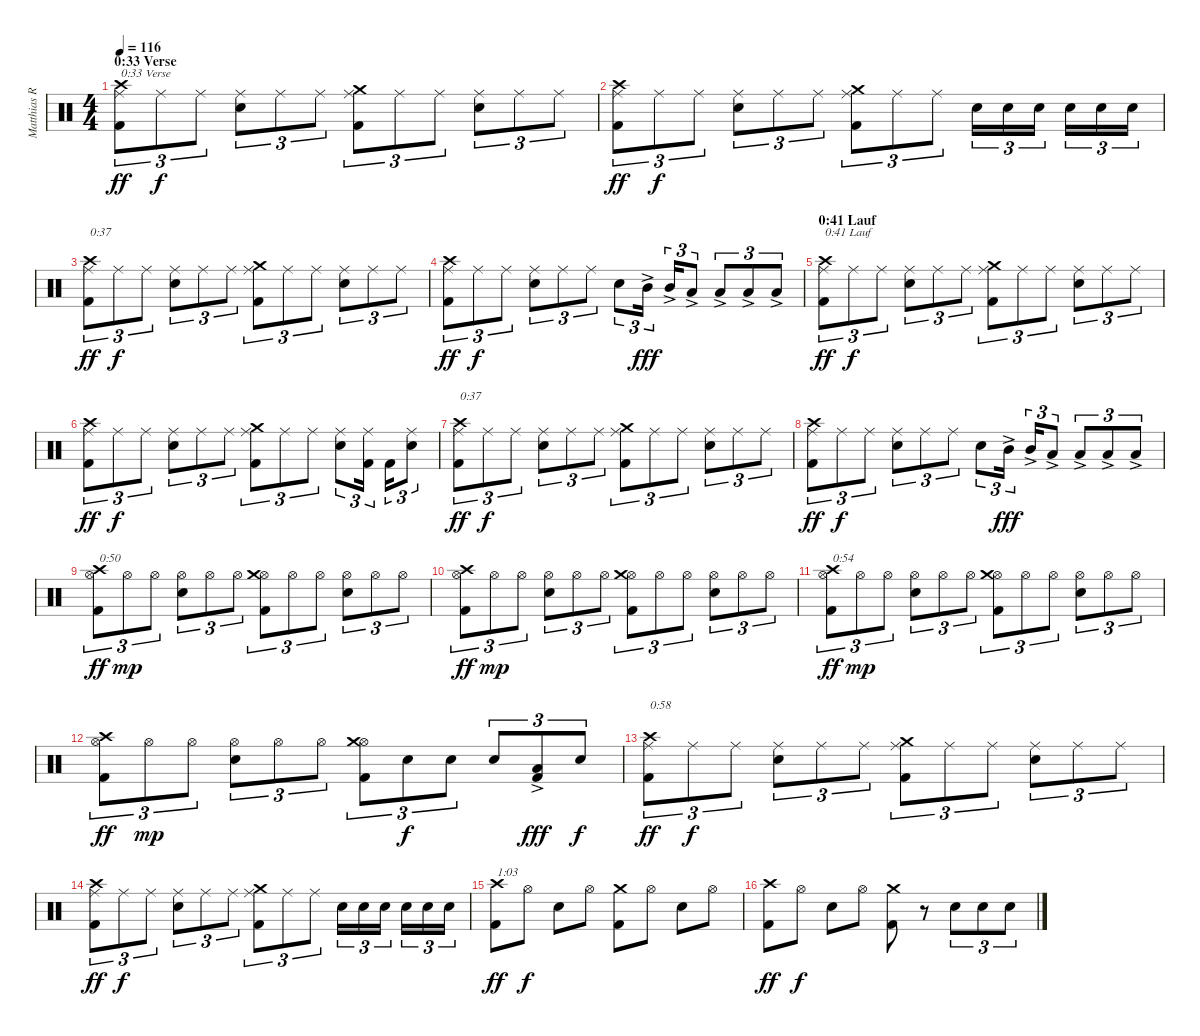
\track ("Matthias R." "Matthias R") {instrument percussion}
\staff {score}
\articulation defaults
\ts (4 4)
\section ("" "0:33 Verse")
\tempo 116
\clef neutral
\ks c
("Kick (hit) 2" "Ride (middle)" "Crash high (hit)").8{tu (3 2) txt "0:33 Verse" dy ff} "Ride (middle)".8{tu (3 2) dy f} "Ride (middle)".8{tu (3 2)} ("Electric Snare (hit)" "Ride (middle)").8{tu (3 2)} "Ride (middle)".8{tu (3 2)} "Ride (middle)".8{tu (3 2)} ("Kick (hit) 2" "Ride (middle)" "Crash medium (hit)").8{tu (3 2)} "Ride (middle)".8{tu (3 2)} "Ride (middle)".8{tu (3 2)} ("Electric Snare (hit)" "Ride (middle)").8{tu (3 2)} "Ride (middle)".8{tu (3 2)} "Ride (middle)".8{tu (3 2)} |
("Kick (hit) 2" "Ride (middle)" "Crash high (hit)").8{tu (3 2) dy ff} "Ride (middle)".8{tu (3 2) dy f} "Ride (middle)".8{tu (3 2)} ("Electric Snare (hit)" "Ride (middle)").8{tu (3 2)} "Ride (middle)".8{tu (3 2)} "Ride (middle)".8{tu (3 2)} ("Kick (hit) 2" "Ride (middle)" "Crash medium (hit)").8{tu (3 2)} "Ride (middle)".8{tu (3 2)} "Ride (middle)".8{tu (3 2)} "Electric Snare (hit)".16{tu (3 2)} "Electric Snare (hit)".16{tu (3 2)} "Electric Snare (hit)".16{tu (3 2)} "Electric Snare (hit)".16{tu (3 2)} "Electric Snare (hit)".16{tu (3 2)} "Electric Snare (hit)".16{tu (3 2)} |
("Kick (hit) 2" "Ride (middle)" "Crash high (hit)").8{tu (3 2) txt "0:37" dy ff} "Ride (middle)".8{tu (3 2) dy f} "Ride (middle)".8{tu (3 2)} ("Electric Snare (hit)" "Ride (middle)").8{tu (3 2)} "Ride (middle)".8{tu (3 2)} "Ride (middle)".8{tu (3 2)} ("Kick (hit) 2" "Ride (middle)" "Crash medium (hit)").8{tu (3 2)} "Ride (middle)".8{tu (3 2)} "Ride (middle)".8{tu (3 2)} ("Electric Snare (hit)" "Ride (middle)").8{tu (3 2)} "Ride (middle)".8{tu (3 2)} "Ride (middle)".8{tu (3 2)} |
("Kick (hit) 2" "Ride (middle)" "Crash high (hit)").8{tu (3 2) dy ff} "Ride (middle)".8{tu (3 2) dy f} "Ride (middle)".8{tu (3 2)} ("Electric Snare (hit)" "Ride (middle)").8{tu (3 2)} "Ride (middle)".8{tu (3 2)} "Ride (middle)".8{tu (3 2)} "Electric Snare (hit)".8{tu (3 2)} "Mid Tom (hit)"{ac}.16{tu (3 2) dy fff} "Mid Tom (hit)"{ac}.16{tu (3 2)} "Low Tom (hit)"{ac}.8{tu (3 2)} "Low Tom (hit)"{ac}.8{tu (3 2)} "Low Tom (hit)"{ac}.8{tu (3 2)} "Low Tom (hit)"{ac}.8{tu (3 2)} |
\section ("" "0:41 Lauf")
("Kick (hit) 2" "Ride (middle)" "Crash high (hit)").8{tu (3 2) txt "0:41 Lauf" dy ff} "Ride (middle)".8{tu (3 2) dy f} "Ride (middle)".8{tu (3 2)} ("Electric Snare (hit)" "Ride (middle)").8{tu (3 2)} "Ride (middle)".8{tu (3 2)} "Ride (middle)".8{tu (3 2)} ("Kick (hit) 2" "Ride (middle)" "Crash medium (hit)").8{tu (3 2)} "Ride (middle)".8{tu (3 2)} "Ride (middle)".8{tu (3 2)} ("Electric Snare (hit)" "Ride (middle)").8{tu (3 2)} "Ride (middle)".8{tu (3 2)} "Ride (middle)".8{tu (3 2)} |
("Kick (hit) 2" "Ride (middle)" "Crash high (hit)").8{tu (3 2) dy ff} "Ride (middle)".8{tu (3 2) dy f} "Ride (middle)".8{tu (3 2)} ("Electric Snare (hit)" "Ride (middle)").8{tu (3 2)} "Ride (middle)".8{tu (3 2)} "Ride (middle)".8{tu (3 2)} ("Kick (hit) 2" "Ride (middle)" "Crash medium (hit)").8{tu (3 2)} "Ride (middle)".8{tu (3 2)} "Ride (middle)".8{tu (3 2)} ("Electric Snare (hit)" "Ride (middle)").8{tu (3 2)} ("Kick (hit) 2" "Ride (middle)").16{tu (3 2)} "Kick (hit) 2".16{tu (3 2)} ("Electric Snare (hit)" "Ride (middle)").8{tu (3 2)} |
("Kick (hit) 2" "Ride (middle)" "Crash high (hit)").8{tu (3 2) txt "0:37" dy ff} "Ride (middle)".8{tu (3 2) dy f} "Ride (middle)".8{tu (3 2)} ("Electric Snare (hit)" "Ride (middle)").8{tu (3 2)} "Ride (middle)".8{tu (3 2)} "Ride (middle)".8{tu (3 2)} ("Kick (hit) 2" "Ride (middle)" "Crash medium (hit)").8{tu (3 2)} "Ride (middle)".8{tu (3 2)} "Ride (middle)".8{tu (3 2)} ("Electric Snare (hit)" "Ride (middle)").8{tu (3 2)} "Ride (middle)".8{tu (3 2)} "Ride (middle)".8{tu (3 2)} |
("Kick (hit) 2" "Ride (middle)" "Crash high (hit)").8{tu (3 2) dy ff} "Ride (middle)".8{tu (3 2) dy f} "Ride (middle)".8{tu (3 2)} ("Electric Snare (hit)" "Ride (middle)").8{tu (3 2)} "Ride (middle)".8{tu (3 2)} "Ride (middle)".8{tu (3 2)} "Electric Snare (hit)".8{tu (3 2)} "Mid Tom (hit)"{ac}.16{tu (3 2) dy fff} "Mid Tom (hit)"{ac}.16{tu (3 2)} "Low Tom (hit)"{ac}.8{tu (3 2)} "Low Tom (hit)"{ac}.8{tu (3 2)} "Low Tom (hit)"{ac}.8{tu (3 2)} "Low Tom (hit)"{ac}.8{tu (3 2)} |
("Kick (hit) 2" "Hi-Hat (open)" "Crash high (hit)").8{tu (3 2) txt "0:50" dy ff} "Hi-Hat (open)".8{tu (3 2) dy mp} "Hi-Hat (open)".8{tu (3 2)} ("Electric Snare (hit)" "Hi-Hat (open)").8{tu (3 2)} "Hi-Hat (open)".8{tu (3 2)} "Hi-Hat (open)".8{tu (3 2)} ("Kick (hit) 2" "Hi-Hat (open)" "Crash medium (hit)").8{tu (3 2)} "Hi-Hat (open)".8{tu (3 2)} "Hi-Hat (open)".8{tu (3 2)} ("Electric Snare (hit)" "Hi-Hat (open)").8{tu (3 2)} "Hi-Hat (open)".8{tu (3 2)} "Hi-Hat (open)".8{tu (3 2)} |
("Kick (hit) 2" "Hi-Hat (open)" "Crash high (hit)").8{tu (3 2) dy ff} "Hi-Hat (open)".8{tu (3 2) dy mp} "Hi-Hat (open)".8{tu (3 2)} ("Electric Snare (hit)" "Hi-Hat (open)").8{tu (3 2)} "Hi-Hat (open)".8{tu (3 2)} "Hi-Hat (open)".8{tu (3 2)} ("Kick (hit) 2" "Hi-Hat (open)" "Crash medium (hit)").8{tu (3 2)} "Hi-Hat (open)".8{tu (3 2)} "Hi-Hat (open)".8{tu (3 2)} ("Electric Snare (hit)" "Hi-Hat (open)").8{tu (3 2)} "Hi-Hat (open)".8{tu (3 2)} "Hi-Hat (open)".8{tu (3 2)} |
("Kick (hit) 2" "Hi-Hat (open)" "Crash high (hit)").8{tu (3 2) txt "0:54" dy ff} "Hi-Hat (open)".8{tu (3 2) dy mp} "Hi-Hat (open)".8{tu (3 2)} ("Electric Snare (hit)" "Hi-Hat (open)").8{tu (3 2)} "Hi-Hat (open)".8{tu (3 2)} "Hi-Hat (open)".8{tu (3 2)} ("Kick (hit) 2" "Hi-Hat (open)" "Crash medium (hit)").8{tu (3 2)} "Hi-Hat (open)".8{tu (3 2)} "Hi-Hat (open)".8{tu (3 2)} ("Electric Snare (hit)" "Hi-Hat (open)").8{tu (3 2)} "Hi-Hat (open)".8{tu (3 2)} "Hi-Hat (open)".8{tu (3 2)} |
("Kick (hit) 2" "Hi-Hat (open)" "Crash high (hit)").8{tu (3 2) dy ff} "Hi-Hat (open)".8{tu (3 2) dy mp} "Hi-Hat (open)".8{tu (3 2)} ("Electric Snare (hit)" "Hi-Hat (open)").8{tu (3 2)} "Hi-Hat (open)".8{tu (3 2)} "Hi-Hat (open)".8{tu (3 2)} ("Kick (hit) 2" "Hi-Hat (open)" "Crash medium (hit)").8{tu (3 2)} "Electric Snare (hit)".8{tu (3 2) dy f} "Electric Snare (hit)".8{tu (3 2)} "Electric Snare (hit)".8{tu (3 2)} ("Kick (hit) 2" "Low Tom (hit)"{ac}).8{tu (3 2) dy fff} "Electric Snare (hit)".8{tu (3 2) dy f} |
("Kick (hit) 2" "Ride (middle)" "Crash high (hit)").8{tu (3 2) txt "0:58" dy ff} "Ride (middle)".8{tu (3 2) dy f} "Ride (middle)".8{tu (3 2)} ("Electric Snare (hit)" "Ride (middle)").8{tu (3 2)} "Ride (middle)".8{tu (3 2)} "Ride (middle)".8{tu (3 2)} ("Kick (hit) 2" "Ride (middle)" "Crash medium (hit)").8{tu (3 2)} "Ride (middle)".8{tu (3 2)} "Ride (middle)".8{tu (3 2)} ("Electric Snare (hit)" "Ride (middle)").8{tu (3 2)} "Ride (middle)".8{tu (3 2)} "Ride (middle)".8{tu (3 2)} |
("Kick (hit) 2" "Ride (middle)" "Crash high (hit)").8{tu (3 2) dy ff} "Ride (middle)".8{tu (3 2) dy f} "Ride (middle)".8{tu (3 2)} ("Electric Snare (hit)" "Ride (middle)").8{tu (3 2)} "Ride (middle)".8{tu (3 2)} "Ride (middle)".8{tu (3 2)} ("Kick (hit) 2" "Ride (middle)" "Crash medium (hit)").8{tu (3 2)} "Ride (middle)".8{tu (3 2)} "Ride (middle)".8{tu (3 2)} "Electric Snare (hit)".16{tu (3 2)} "Electric Snare (hit)".16{tu (3 2)} "Electric Snare (hit)".16{tu (3 2)} "Electric Snare (hit)".16{tu (3 2)} "Electric Snare (hit)".16{tu (3 2)} "Electric Snare (hit)".16{tu (3 2)} |
("Kick (hit) 2" "Crash high (hit)").8{txt "1:03" dy ff} "Hi-Hat (open)".8{dy f} "Electric Snare (hit)".8 "Hi-Hat (open)".8 ("Kick (hit) 2" "Crash medium (hit)").8 "Hi-Hat (open)".8 "Electric Snare (hit)".8 "Hi-Hat (open)".8 |
("Kick (hit) 2" "Crash high (hit)").8{dy ff} "Hi-Hat (open)".8{dy f} "Electric Snare (hit)".8 "Hi-Hat (open)".8 ("Kick (hit) 2" "Crash medium (hit)").8 r.8 "Electric Snare (hit)".8{tu (3 2)} "Electric Snare (hit)".8{tu (3 2)} "Electric Snare (hit)".8{tu (3 2)}
